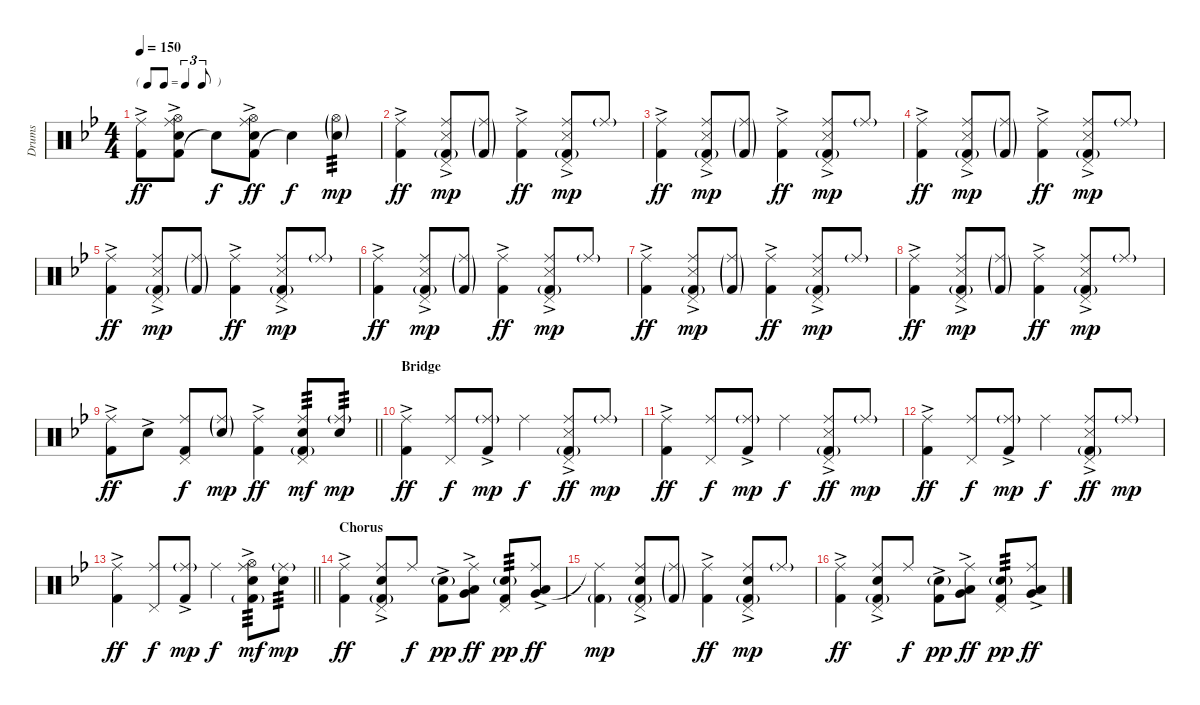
\track ("Drums" "Drums") {instrument percussion}
\staff {score}
\articulation defaults
\ts (4 4)
\tf triplet8th
\tempo 150
\clef neutral
\ks bb
("Kick (hit) 2"{ac} "Ride (middle)").8{dy ff} ("Kick (hit) 2" "Snare (hit) 2" "Hi-Hat (open)" "Ride (middle)"{ac}).8 "Snare (hit)"{t}.8{dy f} ("Kick (hit) 2" "Snare (hit) 2" "Hi-Hat (open)" "Ride (middle)"{ac}).8{dy ff} "Snare (hit)"{t}.4{dy f} ("Snare (hit) 2"{g} "Hi-Hat (open)"{g}).4{tp 3 dy mp} |
("Kick (hit) 2"{ac} "Ride (middle)").4{dy ff} ("Snare (side stick) 3"{ac} "Kick (hit) 2"{g} "Pedal Hi-Hat (hit)" "Ride (middle)").8{dy mp} ("Kick (hit) 2"{g} "Ride (middle)"{g}).8 ("Kick (hit) 2"{ac} "Ride (middle)").4{dy ff} ("Snare (side stick) 3"{ac} "Kick (hit) 2"{g} "Pedal Hi-Hat (hit)" "Ride (middle)").8{dy mp} "Ride (middle)"{g}.8 |
("Kick (hit) 2"{ac} "Ride (middle)").4{dy ff} ("Snare (side stick) 3"{ac} "Kick (hit) 2"{g} "Pedal Hi-Hat (hit)" "Ride (middle)").8{dy mp} ("Kick (hit) 2"{g} "Ride (middle)"{g}).8 ("Kick (hit) 2"{ac} "Ride (middle)").4{dy ff} ("Snare (side stick) 3"{ac} "Kick (hit) 2"{g} "Pedal Hi-Hat (hit)" "Ride (middle)").8{dy mp} "Ride (middle)"{g}.8 |
("Kick (hit) 2"{ac} "Ride (middle)").4{dy ff} ("Snare (side stick) 3"{ac} "Kick (hit) 2"{g} "Pedal Hi-Hat (hit)" "Ride (middle)").8{dy mp} ("Kick (hit) 2"{g} "Ride (middle)"{g}).8 ("Kick (hit) 2"{ac} "Ride (middle)").4{dy ff} ("Snare (side stick) 3"{ac} "Kick (hit) 2"{g} "Pedal Hi-Hat (hit)" "Ride (middle)").8{dy mp} "Ride (middle)"{g}.8 |
("Kick (hit) 2"{ac} "Ride (middle)").4{dy ff} ("Snare (side stick) 3"{ac} "Kick (hit) 2"{g} "Pedal Hi-Hat (hit)" "Ride (middle)").8{dy mp} ("Kick (hit) 2"{g} "Ride (middle)"{g}).8 ("Kick (hit) 2"{ac} "Ride (middle)").4{dy ff} ("Snare (side stick) 3"{ac} "Kick (hit) 2"{g} "Pedal Hi-Hat (hit)" "Ride (middle)").8{dy mp} "Ride (middle)"{g}.8 |
("Kick (hit) 2"{ac} "Ride (middle)").4{dy ff} ("Snare (side stick) 3"{ac} "Kick (hit) 2"{g} "Pedal Hi-Hat (hit)" "Ride (middle)").8{dy mp} ("Kick (hit) 2"{g} "Ride (middle)"{g}).8 ("Kick (hit) 2"{ac} "Ride (middle)").4{dy ff} ("Snare (side stick) 3"{ac} "Kick (hit) 2"{g} "Pedal Hi-Hat (hit)" "Ride (middle)").8{dy mp} "Ride (middle)"{g}.8 |
("Kick (hit) 2"{ac} "Ride (middle)").4{dy ff} ("Snare (side stick) 3"{ac} "Kick (hit) 2"{g} "Pedal Hi-Hat (hit)" "Ride (middle)").8{dy mp} ("Kick (hit) 2"{g} "Ride (middle)"{g}).8 ("Kick (hit) 2"{ac} "Ride (middle)").4{dy ff} ("Snare (side stick) 3"{ac} "Kick (hit) 2"{g} "Pedal Hi-Hat (hit)" "Ride (middle)").8{dy mp} "Ride (middle)"{g}.8 |
("Kick (hit) 2"{ac} "Ride (middle)").4{dy ff} ("Snare (side stick) 3"{ac} "Kick (hit) 2"{g} "Pedal Hi-Hat (hit)" "Ride (middle)").8{dy mp} ("Kick (hit) 2"{g} "Ride (middle)"{g}).8 ("Kick (hit) 2"{ac} "Ride (middle)").4{dy ff} ("Snare (side stick) 3"{ac} "Kick (hit) 2"{g} "Pedal Hi-Hat (hit)" "Ride (middle)").8{dy mp} "Ride (middle)"{g}.8 |
\barLineRight lightlight
("Kick (hit) 2"{ac} "Ride (middle)").8{dy ff} "Snare (hit) 2"{ac}.8 ("Kick (hit) 2" "Pedal Hi-Hat (hit)" "Ride (middle)").8{dy f} ("Snare (hit) 2"{g} "Ride (middle)"{g}).8{dy mp} ("Kick (hit) 2"{ac} "Ride (middle)").4{dy ff} ("Kick (hit) 2"{g} "Snare (hit) 2" "Pedal Hi-Hat (hit)" "Ride (middle)").8{tp 3 dy mf} ("Snare (hit) 2" "Ride (middle)"{g}).8{tp 3 dy mp} |
\section ("" "Bridge")
("Kick (hit) 2"{ac} "Ride (middle)"{ac}).4{dy ff} ("Pedal Hi-Hat (hit)" "Ride (middle)").8{dy f} ("Kick (hit) 2"{ac} "Ride (middle)"{g}).8{dy mp} "Ride (middle)".4{dy f} ("Kick (hit) 2"{g} "Snare (side stick) 3"{ac} "Pedal Hi-Hat (hit)" "Ride (middle)").8{dy ff} "Ride (middle)"{g}.8{dy mp} |
("Kick (hit) 2"{ac} "Ride (middle)"{ac}).4{dy ff} ("Pedal Hi-Hat (hit)" "Ride (middle)").8{dy f} ("Kick (hit) 2"{ac} "Ride (middle)"{g}).8{dy mp} "Ride (middle)".4{dy f} ("Kick (hit) 2"{g} "Snare (side stick) 3"{ac} "Pedal Hi-Hat (hit)" "Ride (middle)").8{dy ff} "Ride (middle)"{g}.8{dy mp} |
("Kick (hit) 2"{ac} "Ride (middle)"{ac}).4{dy ff} ("Pedal Hi-Hat (hit)" "Ride (middle)").8{dy f} ("Kick (hit) 2"{ac} "Ride (middle)"{g}).8{dy mp} "Ride (middle)".4{dy f} ("Kick (hit) 2"{g} "Snare (side stick) 3"{ac} "Pedal Hi-Hat (hit)" "Ride (middle)").8{dy ff} "Ride (middle)"{g}.8{dy mp} |
\barLineRight lightlight
("Kick (hit) 2"{ac} "Ride (middle)"{ac}).4{dy ff} ("Pedal Hi-Hat (hit)" "Ride (middle)").8{dy f} ("Kick (hit) 2"{ac} "Ride (middle)"{g}).8{dy mp} "Ride (middle)".4{dy f} ("Kick (hit) 2"{g} "Snare (hit) 2"{ac} "Hi-Hat (open)" "Ride (middle)").8{tp 3 dy mf} ("Snare (hit) 2" "Ride (middle)"{g}).8{tp 3 dy mp} |
\section ("" "Chorus")
("Kick (hit) 2"{ac} "Ride (middle)").4{dy ff} ("Kick (hit) 2"{g} "Snare (hit) 2"{ac} "Pedal Hi-Hat (hit)" "Ride (middle)").8 "Ride (middle)".8{dy f} ("Kick (hit) 2"{ac} "Snare (hit) 2"{g}).8{dy pp} ("Low Floor Tom (hit)" "Very Low Tom (hit)" "Ride (middle)"{ac}).8{dy ff} ("Kick (hit) 2" "Snare (hit) 2"{g} "Pedal Hi-Hat (hit)").8{tp 3 dy pp} ("Low Floor Tom (hit)"{ac} "Very Low Tom (hit)" "Ride (middle)"{ac}).8{dy ff} |
("Kick (hit) 2"{g} "Ride (middle)"{t}).4{dy mp} ("Snare (hit) 2"{ac} "Kick (hit) 2"{g} "Pedal Hi-Hat (hit)" "Ride (middle)").8 ("Kick (hit) 2"{g} "Ride (middle)"{g}).8 ("Kick (hit) 2"{ac} "Ride (middle)").4{dy ff} ("Snare (hit) 2"{ac} "Kick (hit) 2"{g} "Pedal Hi-Hat (hit)" "Ride (middle)").8{dy mp} "Ride (middle)"{g}.8 |
("Kick (hit) 2"{ac} "Ride (middle)").4{dy ff} ("Kick (hit) 2"{g} "Snare (hit) 2"{ac} "Pedal Hi-Hat (hit)" "Ride (middle)").8 "Ride (middle)".8{dy f} ("Kick (hit) 2"{ac} "Snare (hit) 2"{g}).8{dy pp} ("Low Floor Tom (hit)" "Very Low Tom (hit)" "Ride (middle)"{ac}).8{dy ff} ("Kick (hit) 2" "Snare (hit) 2"{g} "Pedal Hi-Hat (hit)").8{tp 3 dy pp} ("Low Floor Tom (hit)"{ac} "Very Low Tom (hit)" "Ride (middle)"{ac}).8{dy ff}
